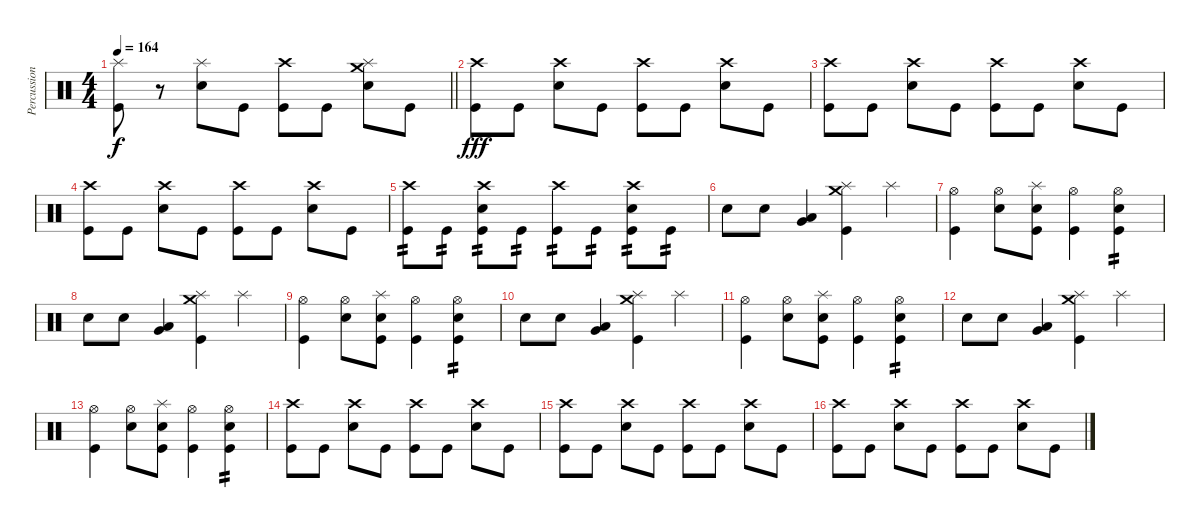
\track ("Percussion" "Percussion") {instrument percussion}
\staff {score}
\articulation defaults
\ts (4 4)
\tempo 164
\clef neutral
\barLineRight lightlight
\ks c
("Splash (hit)" "Kick (hit)").8{dy f} r.8 ("Splash (hit)" "Electric Snare (hit)").8 "Kick (hit)".8 ("Crash high (hit)" "Kick (hit)").8 "Kick (hit)".8 ("Crash medium (hit)" "Splash (hit)" "Electric Snare (hit)").8 "Kick (hit)".8 |
("Crash high (hit)" "Kick (hit)").8{dy fff} "Kick (hit)".8 ("Crash high (hit)" "Electric Snare (hit)").8 "Kick (hit)".8 ("Crash high (hit)" "Kick (hit)").8 "Kick (hit)".8 ("Crash high (hit)" "Electric Snare (hit)").8 "Kick (hit)".8 |
("Crash high (hit)" "Kick (hit)").8 "Kick (hit)".8 ("Crash high (hit)" "Electric Snare (hit)").8 "Kick (hit)".8 ("Crash high (hit)" "Kick (hit)").8 "Kick (hit)".8 ("Crash high (hit)" "Electric Snare (hit)").8 "Kick (hit)".8 |
("Crash high (hit)" "Kick (hit)").8 "Kick (hit)".8 ("Crash high (hit)" "Electric Snare (hit)").8 "Kick (hit)".8 ("Crash high (hit)" "Kick (hit)").8 "Kick (hit)".8 ("Crash high (hit)" "Electric Snare (hit)").8 "Kick (hit)".8 |
("Crash high (hit)" "Kick (hit)").8{tp 2} "Kick (hit)".8{tp 2} ("Crash high (hit)" "Electric Snare (hit)" "Kick (hit)").8{tp 2} "Kick (hit)".8{tp 2} ("Crash high (hit)" "Kick (hit)").8{tp 2} "Kick (hit)".8{tp 2} ("Crash high (hit)" "Electric Snare (hit)" "Kick (hit)").8{tp 2} "Kick (hit)".8{tp 2} |
"Electric Snare (hit)".8 "Electric Snare (hit)".8 ("Very Low Tom (hit)" "Low Floor Tom (hit)").4 ("Crash medium (hit)" "Splash (hit)" "Kick (hit)").4 "Splash (hit)".4 |
("Hi-Hat (open)" "Kick (hit)").4 ("Hi-Hat (open)" "Electric Snare (hit)").8 ("Splash (hit)" "Electric Snare (hit)" "Kick (hit)").8 ("Hi-Hat (open)" "Kick (hit)").4 ("Hi-Hat (open)" "Electric Snare (hit)" "Kick (hit)").4{tp 2} |
"Electric Snare (hit)".8 "Electric Snare (hit)".8 ("Very Low Tom (hit)" "Low Floor Tom (hit)").4 ("Crash medium (hit)" "Splash (hit)" "Kick (hit)").4 "Splash (hit)".4 |
("Hi-Hat (open)" "Kick (hit)").4 ("Hi-Hat (open)" "Electric Snare (hit)").8 ("Splash (hit)" "Electric Snare (hit)" "Kick (hit)").8 ("Hi-Hat (open)" "Kick (hit)").4 ("Hi-Hat (open)" "Electric Snare (hit)" "Kick (hit)").4{tp 2} |
"Electric Snare (hit)".8 "Electric Snare (hit)".8 ("Very Low Tom (hit)" "Low Floor Tom (hit)").4 ("Crash medium (hit)" "Splash (hit)" "Kick (hit)").4 "Splash (hit)".4 |
("Hi-Hat (open)" "Kick (hit)").4 ("Hi-Hat (open)" "Electric Snare (hit)").8 ("Splash (hit)" "Electric Snare (hit)" "Kick (hit)").8 ("Hi-Hat (open)" "Kick (hit)").4 ("Hi-Hat (open)" "Electric Snare (hit)" "Kick (hit)").4{tp 2} |
"Electric Snare (hit)".8 "Electric Snare (hit)".8 ("Very Low Tom (hit)" "Low Floor Tom (hit)").4 ("Crash medium (hit)" "Splash (hit)" "Kick (hit)").4 "Splash (hit)".4 |
("Hi-Hat (open)" "Kick (hit)").4 ("Hi-Hat (open)" "Electric Snare (hit)").8 ("Splash (hit)" "Electric Snare (hit)" "Kick (hit)").8 ("Hi-Hat (open)" "Kick (hit)").4 ("Hi-Hat (open)" "Electric Snare (hit)" "Kick (hit)").4{tp 2} |
("Crash high (hit)" "Kick (hit)").8 "Kick (hit)".8 ("Crash high (hit)" "Electric Snare (hit)").8 "Kick (hit)".8 ("Crash high (hit)" "Kick (hit)").8 "Kick (hit)".8 ("Crash high (hit)" "Electric Snare (hit)").8 "Kick (hit)".8 |
("Crash high (hit)" "Kick (hit)").8 "Kick (hit)".8 ("Crash high (hit)" "Electric Snare (hit)").8 "Kick (hit)".8 ("Crash high (hit)" "Kick (hit)").8 "Kick (hit)".8 ("Crash high (hit)" "Electric Snare (hit)").8 "Kick (hit)".8 |
("Crash high (hit)" "Kick (hit)").8 "Kick (hit)".8 ("Crash high (hit)" "Electric Snare (hit)").8 "Kick (hit)".8 ("Crash high (hit)" "Kick (hit)").8 "Kick (hit)".8 ("Crash high (hit)" "Electric Snare (hit)").8 "Kick (hit)".8
